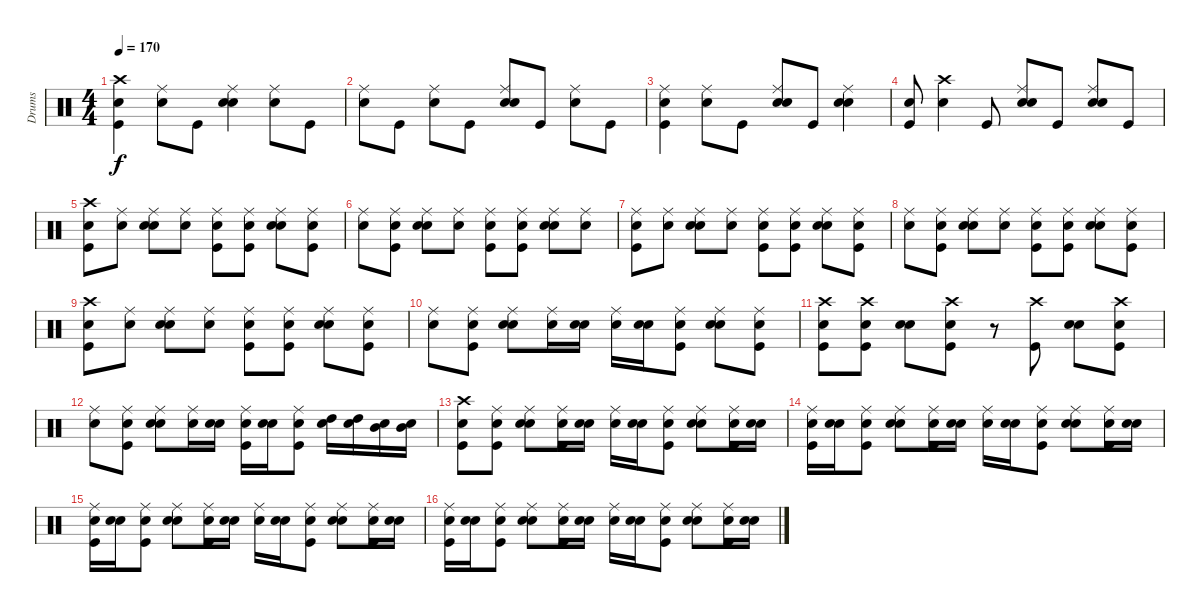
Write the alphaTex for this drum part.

\track ("Drums" "Drums") {instrument percussion}
\staff {score}
\articulation defaults
\ts (4 4)
\tempo 170
\clef neutral
\ks c
("Snare (hit)" "Kick (hit)" "Crash high (hit)").4{dy f} ("Snare (hit)" "Ride (middle)").8 "Kick (hit)".8 ("Snare (hit)" "Electric Snare (hit)" "Ride (middle)").4 ("Snare (hit)" "Ride (middle)").8 "Kick (hit)".8 |
("Snare (hit)" "Ride (middle)").8 "Kick (hit)".8 ("Snare (hit)" "Ride (middle)").8 "Kick (hit)".8 ("Snare (hit)" "Electric Snare (hit)" "Ride (middle)").8 "Kick (hit)".8 ("Snare (hit)" "Ride (middle)").8 "Kick (hit)".8 |
("Snare (hit)" "Kick (hit)" "Ride (middle)").4 ("Snare (hit)" "Ride (middle)").8 "Kick (hit)".8 ("Snare (hit)" "Electric Snare (hit)" "Ride (middle)").8 "Kick (hit)".8 ("Snare (hit)" "Electric Snare (hit)" "Ride (middle)").4 |
("Snare (hit)" "Kick (hit)").8 ("Electric Snare (hit)" "Crash high (hit)").4 "Kick (hit)".8 ("Snare (hit)" "Electric Snare (hit)" "Ride (middle)").8 "Kick (hit)".8 ("Snare (hit)" "Electric Snare (hit)" "Ride (middle)").8 "Kick (hit)".8 |
("Snare (hit)" "Kick (hit)" "Crash high (hit)").8 ("Snare (hit)" "Ride (middle)").8 ("Snare (hit)" "Electric Snare (hit)" "Ride (middle)").8 ("Snare (hit)" "Ride (middle)").8 ("Snare (hit)" "Kick (hit)" "Ride (middle)").8 ("Snare (hit)" "Kick (hit)" "Ride (middle)").8 ("Snare (hit)" "Electric Snare (hit)" "Ride (middle)").8 ("Snare (hit)" "Kick (hit)" "Ride (middle)").8 |
("Snare (hit)" "Ride (middle)").8 ("Snare (hit)" "Kick (hit)" "Ride (middle)").8 ("Snare (hit)" "Electric Snare (hit)" "Ride (middle)").8 ("Snare (hit)" "Ride (middle)").8 ("Snare (hit)" "Kick (hit)" "Ride (middle)").8 ("Snare (hit)" "Kick (hit)" "Ride (middle)").8 ("Snare (hit)" "Electric Snare (hit)" "Ride (middle)").8 ("Snare (hit)" "Ride (middle)").8 |
("Snare (hit)" "Kick (hit)" "Ride (middle)").8 ("Snare (hit)" "Ride (middle)").8 ("Snare (hit)" "Electric Snare (hit)" "Ride (middle)").8 ("Snare (hit)" "Ride (middle)").8 ("Snare (hit)" "Kick (hit)" "Ride (middle)").8 ("Snare (hit)" "Kick (hit)" "Ride (middle)").8 ("Snare (hit)" "Electric Snare (hit)" "Ride (middle)").8 ("Snare (hit)" "Kick (hit)" "Ride (middle)").8 |
("Snare (hit)" "Ride (middle)").8 ("Snare (hit)" "Kick (hit)" "Ride (middle)").8 ("Snare (hit)" "Electric Snare (hit)" "Ride (middle)").8 ("Snare (hit)" "Ride (middle)").8 ("Snare (hit)" "Kick (hit)" "Ride (middle)").8 ("Snare (hit)" "Kick (hit)" "Ride (middle)").8 ("Snare (hit)" "Electric Snare (hit)" "Ride (middle)").8 ("Snare (hit)" "Kick (hit)" "Ride (middle)").8 |
("Snare (hit)" "Kick (hit)" "Crash high (hit)").8 ("Snare (hit)" "Ride (middle)").8 ("Snare (hit)" "Electric Snare (hit)" "Ride (middle)").8 ("Snare (hit)" "Ride (middle)").8 ("Snare (hit)" "Kick (hit)" "Ride (middle)").8 ("Snare (hit)" "Kick (hit)" "Ride (middle)").8 ("Snare (hit)" "Electric Snare (hit)" "Ride (middle)").8 ("Snare (hit)" "Kick (hit)" "Ride (middle)").8 |
("Snare (hit)" "Ride (middle)").8 ("Snare (hit)" "Kick (hit)" "Ride (middle)").8 ("Snare (hit)" "Electric Snare (hit)" "Ride (middle)").8 ("Snare (hit)" "Ride (middle)").16 ("Snare (hit)" "Electric Snare (hit)").16 ("Snare (hit)" "Ride (middle)").16 ("Snare (hit)" "Electric Snare (hit)").16 ("Snare (hit)" "Kick (hit)" "Ride (middle)").8 ("Snare (hit)" "Electric Snare (hit)" "Ride (middle)").8 ("Snare (hit)" "Kick (hit)" "Ride (middle)").8 |
("Snare (hit)" "Kick (hit)" "Crash high (hit)").8 ("Snare (hit)" "Kick (hit)" "Crash high (hit)").8 ("Snare (hit)" "Electric Snare (hit)").8 ("Snare (hit)" "Kick (hit)" "Crash high (hit)").8 r.8 ("Kick (hit)" "Crash high (hit)").8 ("Snare (hit)" "Electric Snare (hit)").8 ("Snare (hit)" "Kick (hit)" "Crash high (hit)").8 |
("Snare (hit)" "Ride (middle)").8 ("Snare (hit)" "Kick (hit)" "Ride (middle)").8 ("Snare (hit)" "Electric Snare (hit)" "Ride (middle)").8 ("Snare (hit)" "Ride (middle)").16 ("Snare (hit)" "Electric Snare (hit)").16 ("Snare (hit)" "Kick (hit)" "Ride (middle)").16 ("Snare (hit)" "Electric Snare (hit)").16 ("Snare (hit)" "Kick (hit)" "Ride (middle)").8 ("Snare (hit)" "High Tom (hit)").16 ("Snare (hit)" "High Tom (hit)").16 ("Snare (hit)" "Mid Tom (hit)").16 ("Snare (hit)" "Mid Tom (hit)").16 |
("Snare (hit)" "Kick (hit)" "Crash high (hit)").8 ("Snare (hit)" "Kick (hit)" "Ride (middle)").8 ("Snare (hit)" "Electric Snare (hit)" "Ride (middle)").8 ("Snare (hit)" "Kick (hit)" "Ride (middle)").16 ("Snare (hit)" "Electric Snare (hit)").16 ("Snare (hit)" "Ride (middle)").16 ("Snare (hit)" "Electric Snare (hit)").16 ("Snare (hit)" "Kick (hit)" "Ride (middle)").8 ("Snare (hit)" "Electric Snare (hit)" "Ride (middle)").8 ("Snare (hit)" "Kick (hit)" "Ride (middle)").16 ("Snare (hit)" "Electric Snare (hit)").16 |
("Snare (hit)" "Kick (hit)" "Ride (middle)").16 ("Snare (hit)" "Electric Snare (hit)").16 ("Snare (hit)" "Kick (hit)" "Ride (middle)").8 ("Snare (hit)" "Electric Snare (hit)" "Ride (middle)").8 ("Snare (hit)" "Kick (hit)" "Ride (middle)").16 ("Snare (hit)" "Electric Snare (hit)").16 ("Snare (hit)" "Ride (middle)").16 ("Snare (hit)" "Electric Snare (hit)").16 ("Snare (hit)" "Kick (hit)" "Ride (middle)").8 ("Snare (hit)" "Electric Snare (hit)" "Ride (middle)").8 ("Snare (hit)" "Kick (hit)" "Ride (middle)").16 ("Snare (hit)" "Electric Snare (hit)").16 |
("Snare (hit)" "Kick (hit)" "Ride (middle)").16 ("Snare (hit)" "Electric Snare (hit)").16 ("Snare (hit)" "Kick (hit)" "Ride (middle)").8 ("Snare (hit)" "Electric Snare (hit)" "Ride (middle)").8 ("Snare (hit)" "Kick (hit)" "Ride (middle)").16 ("Snare (hit)" "Electric Snare (hit)").16 ("Snare (hit)" "Ride (middle)").16 ("Snare (hit)" "Electric Snare (hit)").16 ("Snare (hit)" "Kick (hit)" "Ride (middle)").8 ("Snare (hit)" "Electric Snare (hit)" "Ride (middle)").8 ("Snare (hit)" "Kick (hit)" "Ride (middle)").16 ("Snare (hit)" "Electric Snare (hit)").16 |
("Snare (hit)" "Kick (hit)" "Ride (middle)").16 ("Snare (hit)" "Electric Snare (hit)").16 ("Snare (hit)" "Kick (hit)" "Ride (middle)").8 ("Snare (hit)" "Electric Snare (hit)" "Ride (middle)").8 ("Snare (hit)" "Kick (hit)" "Ride (middle)").16 ("Snare (hit)" "Electric Snare (hit)").16 ("Snare (hit)" "Ride (middle)").16 ("Snare (hit)" "Electric Snare (hit)").16 ("Snare (hit)" "Kick (hit)" "Ride (middle)").8 ("Snare (hit)" "Electric Snare (hit)" "Ride (middle)").8 ("Snare (hit)" "Kick (hit)" "Ride (middle)").16 ("Snare (hit)" "Electric Snare (hit)").16
